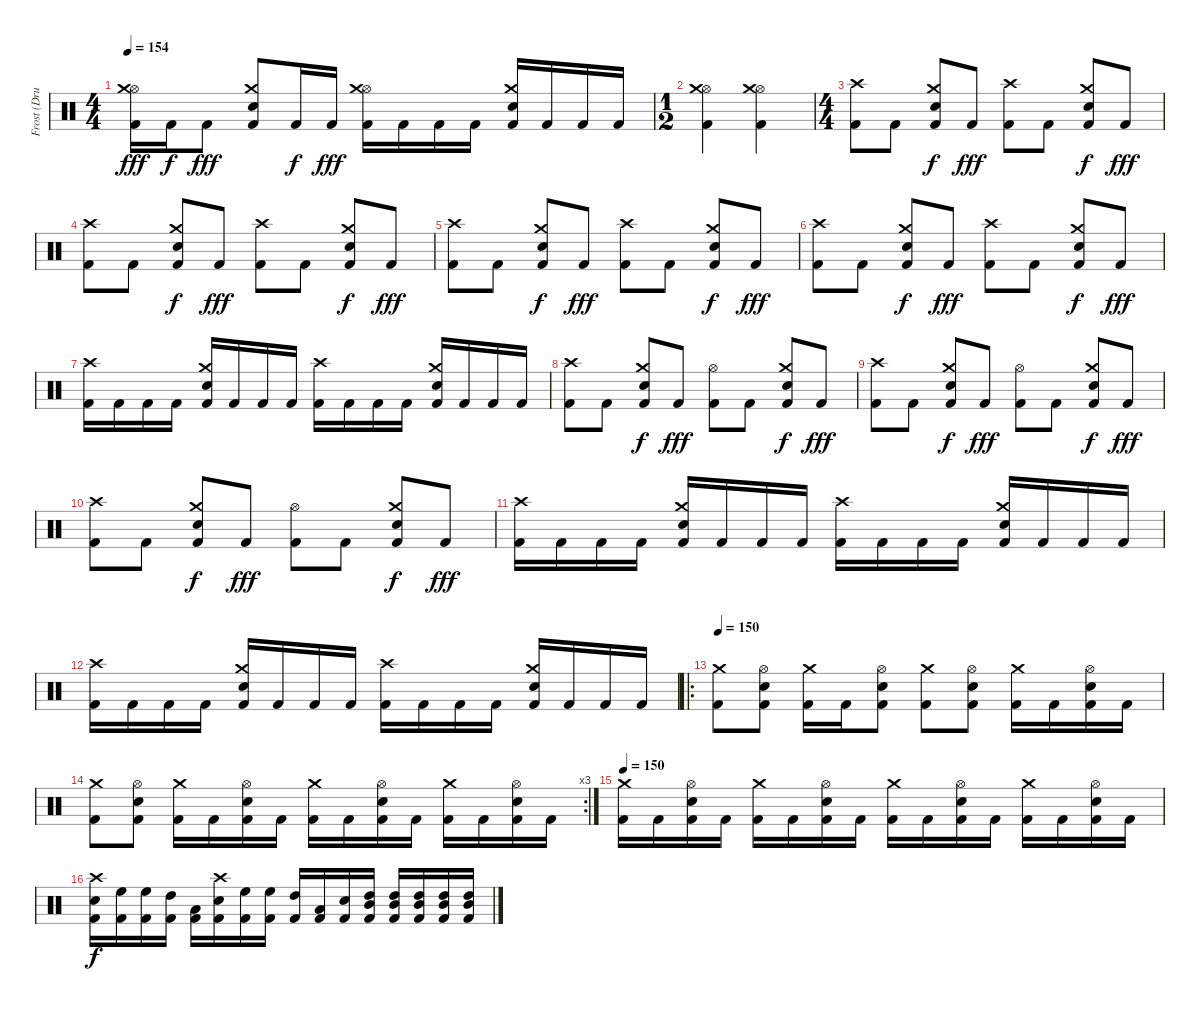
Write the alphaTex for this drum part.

\track ("Frost (Drums)" "Frost (Dru") {instrument percussion}
\staff {score}
\articulation defaults
\ts (4 4)
\tempo 154
\clef neutral
\ks c
("Kick (hit) 2" "Hi-Hat (open)" "Crash medium (hit)").16{dy fff} "Kick (hit) 2".16{dy f} "Kick (hit) 2".8{dy fff} ("Kick (hit) 2" "Snare (hit) 2" "Crash medium (hit)").8 "Kick (hit) 2".16{dy f} "Kick (hit) 2".16{dy fff} ("Kick (hit) 2" "Hi-Hat (open)" "Crash medium (hit)").16 "Kick (hit) 2".16 "Kick (hit) 2".16 "Kick (hit) 2".16 ("Kick (hit) 2" "Snare (hit) 2" "Crash medium (hit)").16 "Kick (hit) 2".16 "Kick (hit) 2".16 "Kick (hit) 2".16 |
\ts (1 2)
("Hi-Hat (open)" "Kick (hit) 2" "Crash medium (hit)").4 ("Hi-Hat (open)" "Kick (hit) 2" "Crash medium (hit)").4 |
\ts (4 4)
("Kick (hit) 2" "Crash high (hit)").8 "Kick (hit) 2".8 ("Kick (hit) 2" "Snare (hit) 2" "Crash medium (hit)").8{dy f} "Kick (hit) 2".8{dy fff} ("Kick (hit) 2" "Crash high (hit)").8 "Kick (hit) 2".8 ("Kick (hit) 2" "Snare (hit) 2" "Crash medium (hit)").8{dy f} "Kick (hit) 2".8{dy fff} |
("Kick (hit) 2" "Crash high (hit)").8 "Kick (hit) 2".8 ("Kick (hit) 2" "Snare (hit) 2" "Crash medium (hit)").8{dy f} "Kick (hit) 2".8{dy fff} ("Kick (hit) 2" "Crash high (hit)").8 "Kick (hit) 2".8 ("Kick (hit) 2" "Snare (hit) 2" "Crash medium (hit)").8{dy f} "Kick (hit) 2".8{dy fff} |
("Kick (hit) 2" "Crash high (hit)").8 "Kick (hit) 2".8 ("Kick (hit) 2" "Snare (hit) 2" "Crash medium (hit)").8{dy f} "Kick (hit) 2".8{dy fff} ("Kick (hit) 2" "Crash high (hit)").8 "Kick (hit) 2".8 ("Kick (hit) 2" "Snare (hit) 2" "Crash medium (hit)").8{dy f} "Kick (hit) 2".8{dy fff} |
("Kick (hit) 2" "Crash high (hit)").8 "Kick (hit) 2".8 ("Kick (hit) 2" "Snare (hit) 2" "Crash medium (hit)").8{dy f} "Kick (hit) 2".8{dy fff} ("Kick (hit) 2" "Crash high (hit)").8 "Kick (hit) 2".8 ("Kick (hit) 2" "Snare (hit) 2" "Crash medium (hit)").8{dy f} "Kick (hit) 2".8{dy fff} |
("Kick (hit) 2" "Crash high (hit)").16 "Kick (hit) 2".16 "Kick (hit) 2".16 "Kick (hit) 2".16 ("Kick (hit) 2" "Snare (hit) 2" "Crash medium (hit)").16 "Kick (hit) 2".16 "Kick (hit) 2".16 "Kick (hit) 2".16 ("Kick (hit) 2" "Crash high (hit)").16 "Kick (hit) 2".16 "Kick (hit) 2".16 "Kick (hit) 2".16 ("Kick (hit) 2" "Snare (hit) 2" "Crash medium (hit)").16 "Kick (hit) 2".16 "Kick (hit) 2".16 "Kick (hit) 2".16 |
("Kick (hit) 2" "Crash high (hit)").8 "Kick (hit) 2".8 ("Kick (hit) 2" "Snare (hit) 2" "Crash medium (hit)").8{dy f} "Kick (hit) 2".8{dy fff} ("Kick (hit) 2" "Hi-Hat (open)").8 "Kick (hit) 2".8 ("Kick (hit) 2" "Snare (hit) 2" "Crash medium (hit)").8{dy f} "Kick (hit) 2".8{dy fff} |
("Kick (hit) 2" "Crash high (hit)").8 "Kick (hit) 2".8 ("Kick (hit) 2" "Snare (hit) 2" "Crash medium (hit)").8{dy f} "Kick (hit) 2".8{dy fff} ("Kick (hit) 2" "Hi-Hat (open)").8 "Kick (hit) 2".8 ("Kick (hit) 2" "Snare (hit) 2" "Crash medium (hit)").8{dy f} "Kick (hit) 2".8{dy fff} |
("Kick (hit) 2" "Crash high (hit)").8 "Kick (hit) 2".8 ("Kick (hit) 2" "Snare (hit) 2" "Crash medium (hit)").8{dy f} "Kick (hit) 2".8{dy fff} ("Kick (hit) 2" "Hi-Hat (open)").8 "Kick (hit) 2".8 ("Kick (hit) 2" "Snare (hit) 2" "Crash medium (hit)").8{dy f} "Kick (hit) 2".8{dy fff} |
("Kick (hit) 2" "Crash high (hit)").16 "Kick (hit) 2".16 "Kick (hit) 2".16 "Kick (hit) 2".16 ("Kick (hit) 2" "Snare (hit) 2" "Crash medium (hit)").16 "Kick (hit) 2".16 "Kick (hit) 2".16 "Kick (hit) 2".16 ("Kick (hit) 2" "Crash high (hit)").16 "Kick (hit) 2".16 "Kick (hit) 2".16 "Kick (hit) 2".16 ("Kick (hit) 2" "Snare (hit) 2" "Crash medium (hit)").16 "Kick (hit) 2".16 "Kick (hit) 2".16 "Kick (hit) 2".16 |
("Kick (hit) 2" "Crash high (hit)").16 "Kick (hit) 2".16 "Kick (hit) 2".16 "Kick (hit) 2".16 ("Kick (hit) 2" "Snare (hit) 2" "Crash medium (hit)").16 "Kick (hit) 2".16 "Kick (hit) 2".16 "Kick (hit) 2".16 ("Kick (hit) 2" "Crash high (hit)").16 "Kick (hit) 2".16 "Kick (hit) 2".16 "Kick (hit) 2".16 ("Kick (hit) 2" "Snare (hit) 2" "Crash medium (hit)").16 "Kick (hit) 2".16 "Kick (hit) 2".16 "Kick (hit) 2".16 |
\ro
\tempo 150
("Kick (hit) 2" "Crash medium (hit)").8 ("Kick (hit) 2" "Snare (hit) 2" "Hi-Hat (open)").8 ("Kick (hit) 2" "Crash medium (hit)").16 "Kick (hit) 2".16 ("Kick (hit) 2" "Snare (hit) 2" "Hi-Hat (open)").8 ("Kick (hit) 2" "Crash medium (hit)").8 ("Kick (hit) 2" "Snare (hit) 2" "Hi-Hat (open)").8 ("Kick (hit) 2" "Crash medium (hit)").16 "Kick (hit) 2".16 ("Kick (hit) 2" "Snare (hit) 2" "Hi-Hat (open)").16 "Kick (hit) 2".16 |
\rc 3
("Kick (hit) 2" "Crash medium (hit)").8 ("Kick (hit) 2" "Snare (hit) 2" "Hi-Hat (open)").8 ("Kick (hit) 2" "Crash medium (hit)").16 "Kick (hit) 2".16 ("Kick (hit) 2" "Snare (hit) 2" "Hi-Hat (open)").16 "Kick (hit) 2".16 ("Kick (hit) 2" "Crash medium (hit)").16 "Kick (hit) 2".16 ("Kick (hit) 2" "Snare (hit) 2" "Hi-Hat (open)").16 "Kick (hit) 2".16 ("Kick (hit) 2" "Crash medium (hit)").16 "Kick (hit) 2".16 ("Kick (hit) 2" "Snare (hit) 2" "Hi-Hat (open)").16 "Kick (hit) 2".16 |
\tempo 150
("Kick (hit) 2" "Crash medium (hit)").16 "Kick (hit) 2".16 ("Kick (hit) 2" "Snare (hit) 2" "Hi-Hat (open)").16 "Kick (hit) 2".16 ("Kick (hit) 2" "Crash medium (hit)").16 "Kick (hit) 2".16 ("Kick (hit) 2" "Snare (hit) 2" "Hi-Hat (open)").16 "Kick (hit) 2".16 ("Kick (hit) 2" "Crash medium (hit)").16 "Kick (hit) 2".16 ("Kick (hit) 2" "Snare (hit) 2" "Hi-Hat (open)").16 "Kick (hit) 2".16 ("Kick (hit) 2" "Crash medium (hit)").16 "Kick (hit) 2".16 ("Kick (hit) 2" "Snare (hit) 2" "Hi-Hat (open)").16 "Kick (hit) 2".16 |
("Crash high (hit)" "Snare (hit) 2" "Kick (hit) 2").16{dy f} ("High Floor Tom (hit)" "Kick (hit) 2").16 ("High Floor Tom (hit)" "Kick (hit) 2").16 ("High Tom (hit)" "Kick (hit) 2").16 ("Low Tom (hit)" "Kick (hit) 2").16 ("Crash high (hit)" "Snare (hit) 2" "Kick (hit) 2").16 ("High Floor Tom (hit)" "Kick (hit) 2").16 ("High Floor Tom (hit)" "Kick (hit) 2").16 ("High Tom (hit)" "Kick (hit) 2").16 ("Low Tom (hit)" "Kick (hit) 2").16 ("Snare (hit) 2" "Kick (hit) 2").16 ("High Tom (hit)" "Mid Tom (hit)" "Kick (hit) 2").16 ("High Tom (hit)" "Mid Tom (hit)" "Kick (hit) 2").16 ("High Tom (hit)" "Mid Tom (hit)" "Kick (hit) 2").16 ("High Tom (hit)" "Mid Tom (hit)" "Kick (hit) 2").16 ("High Tom (hit)" "Mid Tom (hit)" "Kick (hit) 2").16
